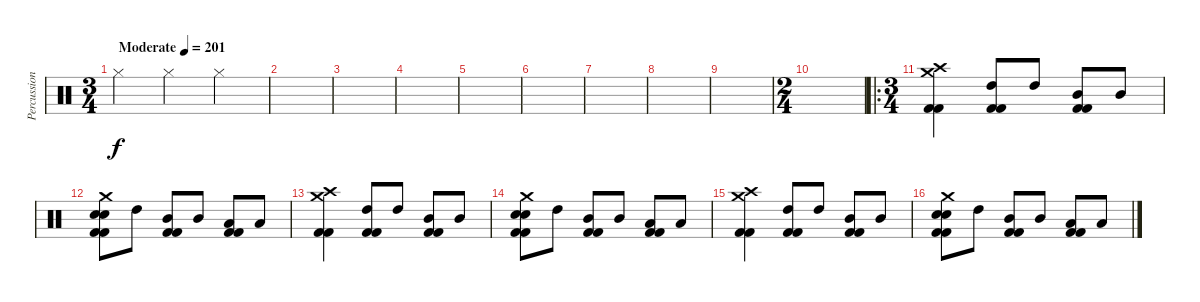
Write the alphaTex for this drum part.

\track ("Percussioni" "Percussion") {instrument percussion}
\staff {score}
\articulation defaults
\ts (3 4)
\tempo (201 "Moderate")
\clef neutral
\ks c "Hi-Hat (closed)".4{dy f} "Hi-Hat (closed)".4 "Hi-Hat (closed)".4
|
|
|
|
|
|
|
|
|
\ts (2 4)
|
\ro
\ts (3 4)
("Crash medium (hit)" "Crash high (hit)" "Kick (hit) 2" "Kick (hit) 2").4 ("High Tom (hit)" "Kick (hit) 2" "Kick (hit) 2").8 "High Tom (hit)".8 ("Mid Tom (hit)" "Kick (hit) 2" "Kick (hit) 2").8 "Mid Tom (hit)".8 |
("Crash medium (hit)" "Electric Snare (hit)" "Electric Snare (hit)" "Kick (hit) 2" "Kick (hit) 2").8 "High Tom (hit)".8 ("Mid Tom (hit)" "Kick (hit) 2" "Kick (hit) 2").8 "Mid Tom (hit)".8 ("Low Tom (hit)" "Kick (hit) 2" "Kick (hit) 2").8 "Low Tom (hit)".8 |
("Crash medium (hit)" "Crash high (hit)" "Kick (hit) 2" "Kick (hit) 2").4 ("High Tom (hit)" "Kick (hit) 2" "Kick (hit) 2").8 "High Tom (hit)".8 ("Mid Tom (hit)" "Kick (hit) 2" "Kick (hit) 2").8 "Mid Tom (hit)".8 |
("Crash medium (hit)" "Electric Snare (hit)" "Electric Snare (hit)" "Kick (hit) 2" "Kick (hit) 2").8 "High Tom (hit)".8 ("Mid Tom (hit)" "Kick (hit) 2" "Kick (hit) 2").8 "Mid Tom (hit)".8 ("Low Tom (hit)" "Kick (hit) 2" "Kick (hit) 2").8 "Low Tom (hit)".8 |
("Crash medium (hit)" "Crash high (hit)" "Kick (hit) 2" "Kick (hit) 2").4 ("High Tom (hit)" "Kick (hit) 2" "Kick (hit) 2").8 "High Tom (hit)".8 ("Mid Tom (hit)" "Kick (hit) 2" "Kick (hit) 2").8 "Mid Tom (hit)".8 |
("Crash medium (hit)" "Electric Snare (hit)" "Electric Snare (hit)" "Kick (hit) 2" "Kick (hit) 2").8 "High Tom (hit)".8 ("Mid Tom (hit)" "Kick (hit) 2" "Kick (hit) 2").8 "Mid Tom (hit)".8 ("Low Tom (hit)" "Kick (hit) 2" "Kick (hit) 2").8 "Low Tom (hit)".8
